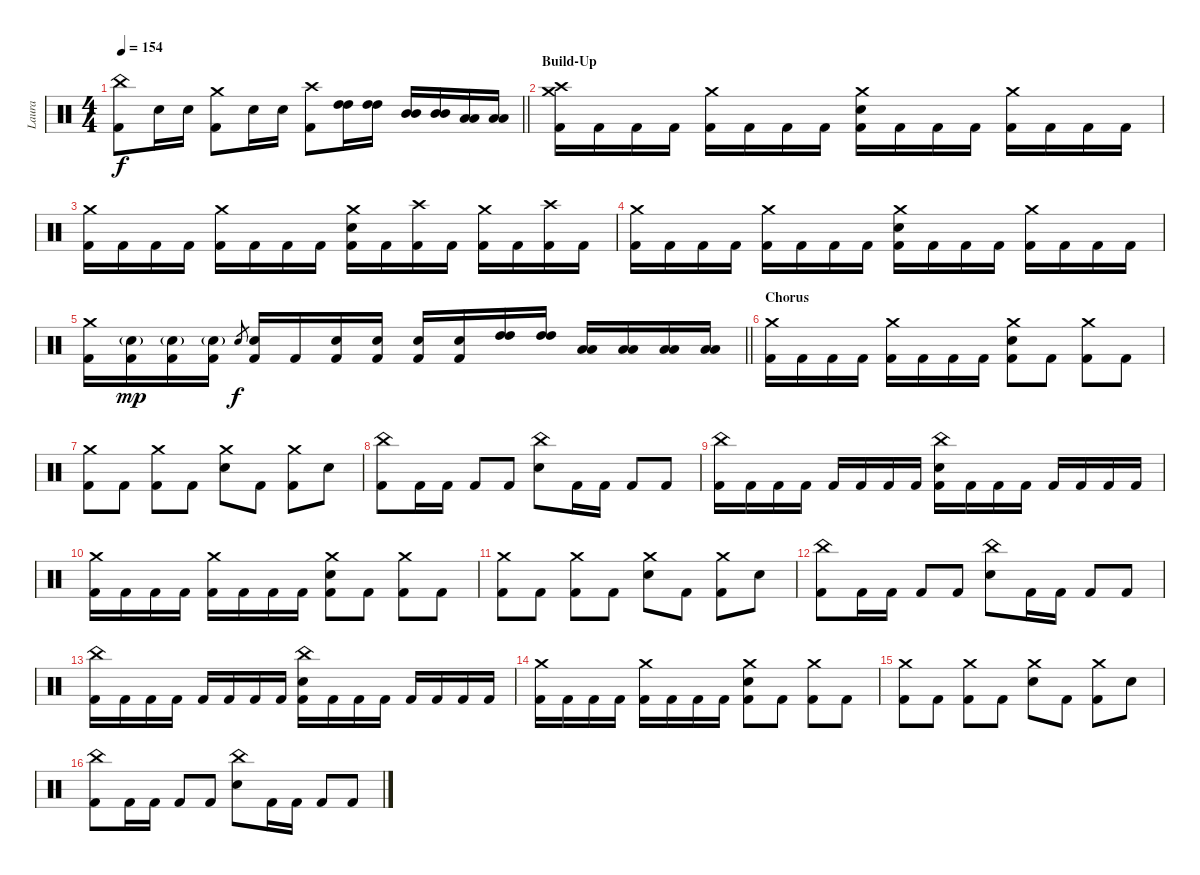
\track ("Laura" "Laura") {instrument percussion}
\staff {score}
\articulation defaults
\ts (4 4)
\tempo 154
\clef neutral
\barLineRight lightlight
\ks c
("China (hit)" "Kick (hit) 2").8{dy f} "Electric Snare (hit)".16 "Electric Snare (hit)".16 ("Crash medium (hit)" "Kick (hit) 2").8 "Electric Snare (hit)".16 "Electric Snare (hit)".16 ("Crash high (hit)" "Kick (hit) 2").8 ("High Tom (hit)" "High Tom (hit)").16 ("High Tom (hit)" "High Tom (hit)").16 ("Mid Tom (hit)" "Mid Tom (hit)").16 ("Mid Tom (hit)" "Mid Tom (hit)").16 ("Low Floor Tom (hit)" "Low Floor Tom (hit)").16 ("Low Floor Tom (hit)" "Low Floor Tom (hit)").16 |
\section ("" "Build-Up")
("Crash medium (hit)" "Crash high (hit)" "Kick (hit) 2").16 "Kick (hit) 2".16 "Kick (hit) 2".16 "Kick (hit) 2".16 ("Crash medium (hit)" "Kick (hit) 2").16 "Kick (hit) 2".16 "Kick (hit) 2".16 "Kick (hit) 2".16 ("Crash medium (hit)" "Electric Snare (hit)" "Kick (hit) 2").16 "Kick (hit) 2".16 "Kick (hit) 2".16 "Kick (hit) 2".16 ("Crash medium (hit)" "Kick (hit) 2").16 "Kick (hit) 2".16 "Kick (hit) 2".16 "Kick (hit) 2".16 |
("Crash medium (hit)" "Kick (hit) 2").16 "Kick (hit) 2".16 "Kick (hit) 2".16 "Kick (hit) 2".16 ("Crash medium (hit)" "Kick (hit) 2").16 "Kick (hit) 2".16 "Kick (hit) 2".16 "Kick (hit) 2".16 ("Crash medium (hit)" "Electric Snare (hit)" "Kick (hit) 2").16 "Kick (hit) 2".16 ("Crash high (hit)" "Kick (hit) 2").16 "Kick (hit) 2".16 ("Crash medium (hit)" "Kick (hit) 2").16 "Kick (hit) 2".16 ("Crash high (hit)" "Kick (hit) 2").16 "Kick (hit) 2".16 |
("Crash medium (hit)" "Kick (hit) 2").16 "Kick (hit) 2".16 "Kick (hit) 2".16 "Kick (hit) 2".16 ("Crash medium (hit)" "Kick (hit) 2").16 "Kick (hit) 2".16 "Kick (hit) 2".16 "Kick (hit) 2".16 ("Crash medium (hit)" "Electric Snare (hit)" "Kick (hit) 2").16 "Kick (hit) 2".16 "Kick (hit) 2".16 "Kick (hit) 2".16 ("Crash medium (hit)" "Kick (hit) 2").16 "Kick (hit) 2".16 "Kick (hit) 2".16 "Kick (hit) 2".16 |
\barLineRight lightlight
("Crash medium (hit)" "Kick (hit) 2").16 ("Electric Snare (hit)"{g} "Kick (hit) 2").16{dy mp} ("Electric Snare (hit)"{g} "Kick (hit) 2").16 ("Electric Snare (hit)"{g} "Kick (hit) 2").16 "Electric Snare (hit)".8{gr dy f} ("Electric Snare (hit)" "Kick (hit) 2").16 "Kick (hit) 2".16 ("Electric Snare (hit)" "Kick (hit) 2").16 ("Electric Snare (hit)" "Kick (hit) 2").16 ("Electric Snare (hit)" "Kick (hit) 2").16 ("Electric Snare (hit)" "Kick (hit) 2").16 ("High Tom (hit)" "High Tom (hit)").16 ("High Tom (hit)" "High Tom (hit)").16 ("Low Tom (hit)" "Low Tom (hit)").16 ("Low Floor Tom (hit)" "Low Floor Tom (hit)").16 ("Low Floor Tom (hit)" "Low Floor Tom (hit)").16 ("Low Floor Tom (hit)" "Low Floor Tom (hit)").16 |
\section ("" "Chorus")
("Crash medium (hit)" "Kick (hit) 2").16 "Kick (hit) 2".16 "Kick (hit) 2".16 "Kick (hit) 2".16 ("Crash medium (hit)" "Kick (hit) 2").16 "Kick (hit) 2".16 "Kick (hit) 2".16 "Kick (hit) 2".16 ("Crash medium (hit)" "Electric Snare (hit)" "Kick (hit) 2").8 "Kick (hit) 2".8 ("Crash medium (hit)" "Kick (hit) 2").8 "Kick (hit) 2".8 |
("Crash medium (hit)" "Kick (hit) 2").8 "Kick (hit) 2".8 ("Crash medium (hit)" "Kick (hit) 2").8 "Kick (hit) 2".8 ("Crash medium (hit)" "Electric Snare (hit)").8 "Kick (hit) 2".8 ("Crash medium (hit)" "Kick (hit) 2").8 "Electric Snare (hit)".8 |
("China (hit)" "Kick (hit) 2").8 "Kick (hit) 2".16 "Kick (hit) 2".16 "Kick (hit) 2".8 "Kick (hit) 2".8 ("China (hit)" "Electric Snare (hit)").8 "Kick (hit) 2".16 "Kick (hit) 2".16 "Kick (hit) 2".8 "Kick (hit) 2".8 |
("China (hit)" "Kick (hit) 2").16 "Kick (hit) 2".16 "Kick (hit) 2".16 "Kick (hit) 2".16 "Kick (hit) 2".16 "Kick (hit) 2".16 "Kick (hit) 2".16 "Kick (hit) 2".16 ("China (hit)" "Electric Snare (hit)" "Kick (hit) 2").16 "Kick (hit) 2".16 "Kick (hit) 2".16 "Kick (hit) 2".16 "Kick (hit) 2".16 "Kick (hit) 2".16 "Kick (hit) 2".16 "Kick (hit) 2".16 |
("Crash medium (hit)" "Kick (hit) 2").16 "Kick (hit) 2".16 "Kick (hit) 2".16 "Kick (hit) 2".16 ("Crash medium (hit)" "Kick (hit) 2").16 "Kick (hit) 2".16 "Kick (hit) 2".16 "Kick (hit) 2".16 ("Crash medium (hit)" "Electric Snare (hit)" "Kick (hit) 2").8 "Kick (hit) 2".8 ("Crash medium (hit)" "Kick (hit) 2").8 "Kick (hit) 2".8 |
("Crash medium (hit)" "Kick (hit) 2").8 "Kick (hit) 2".8 ("Crash medium (hit)" "Kick (hit) 2").8 "Kick (hit) 2".8 ("Crash medium (hit)" "Electric Snare (hit)").8 "Kick (hit) 2".8 ("Crash medium (hit)" "Kick (hit) 2").8 "Electric Snare (hit)".8 |
("China (hit)" "Kick (hit) 2").8 "Kick (hit) 2".16 "Kick (hit) 2".16 "Kick (hit) 2".8 "Kick (hit) 2".8 ("China (hit)" "Electric Snare (hit)").8 "Kick (hit) 2".16 "Kick (hit) 2".16 "Kick (hit) 2".8 "Kick (hit) 2".8 |
("China (hit)" "Kick (hit) 2").16 "Kick (hit) 2".16 "Kick (hit) 2".16 "Kick (hit) 2".16 "Kick (hit) 2".16 "Kick (hit) 2".16 "Kick (hit) 2".16 "Kick (hit) 2".16 ("China (hit)" "Electric Snare (hit)" "Kick (hit) 2").16 "Kick (hit) 2".16 "Kick (hit) 2".16 "Kick (hit) 2".16 "Kick (hit) 2".16 "Kick (hit) 2".16 "Kick (hit) 2".16 "Kick (hit) 2".16 |
("Crash medium (hit)" "Kick (hit) 2").16 "Kick (hit) 2".16 "Kick (hit) 2".16 "Kick (hit) 2".16 ("Crash medium (hit)" "Kick (hit) 2").16 "Kick (hit) 2".16 "Kick (hit) 2".16 "Kick (hit) 2".16 ("Crash medium (hit)" "Electric Snare (hit)" "Kick (hit) 2").8 "Kick (hit) 2".8 ("Crash medium (hit)" "Kick (hit) 2").8 "Kick (hit) 2".8 |
("Crash medium (hit)" "Kick (hit) 2").8 "Kick (hit) 2".8 ("Crash medium (hit)" "Kick (hit) 2").8 "Kick (hit) 2".8 ("Crash medium (hit)" "Electric Snare (hit)").8 "Kick (hit) 2".8 ("Crash medium (hit)" "Kick (hit) 2").8 "Electric Snare (hit)".8 |
("China (hit)" "Kick (hit) 2").8 "Kick (hit) 2".16 "Kick (hit) 2".16 "Kick (hit) 2".8 "Kick (hit) 2".8 ("China (hit)" "Electric Snare (hit)").8 "Kick (hit) 2".16 "Kick (hit) 2".16 "Kick (hit) 2".8 "Kick (hit) 2".8
